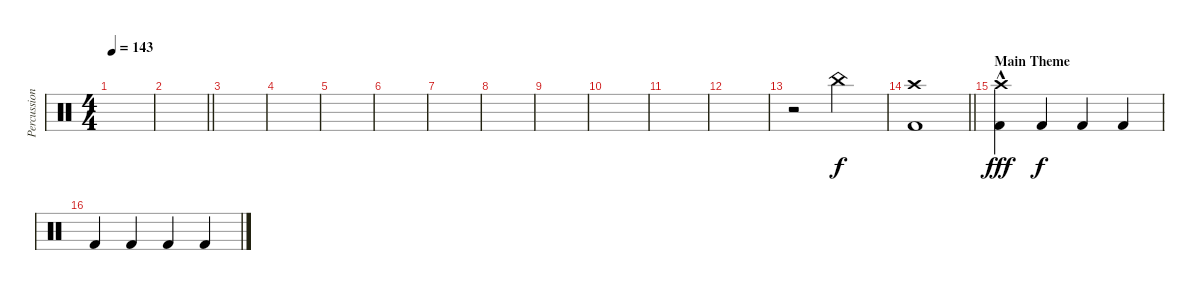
\track ("Percussion" "Percussion") {instrument percussion}
\staff {score}
\articulation defaults
\ts (4 4)
\tempo 143
\clef neutral
\ks c
|
\barLineRight lightlight
|
|
|
|
|
|
|
|
|
|
|
r.2 "China (hit)".2 |
\barLineRight lightlight
("Crash high (hit)" "Kick (hit) 2").1 |
\section ("" "Main Theme")
("Crash high (hit)" "Kick (hit) 2"{hac}).4{dy fff} "Kick (hit) 2".4{dy f} "Kick (hit) 2".4 "Kick (hit) 2".4 |
"Kick (hit) 2".4 "Kick (hit) 2".4 "Kick (hit) 2".4 "Kick (hit) 2".4
